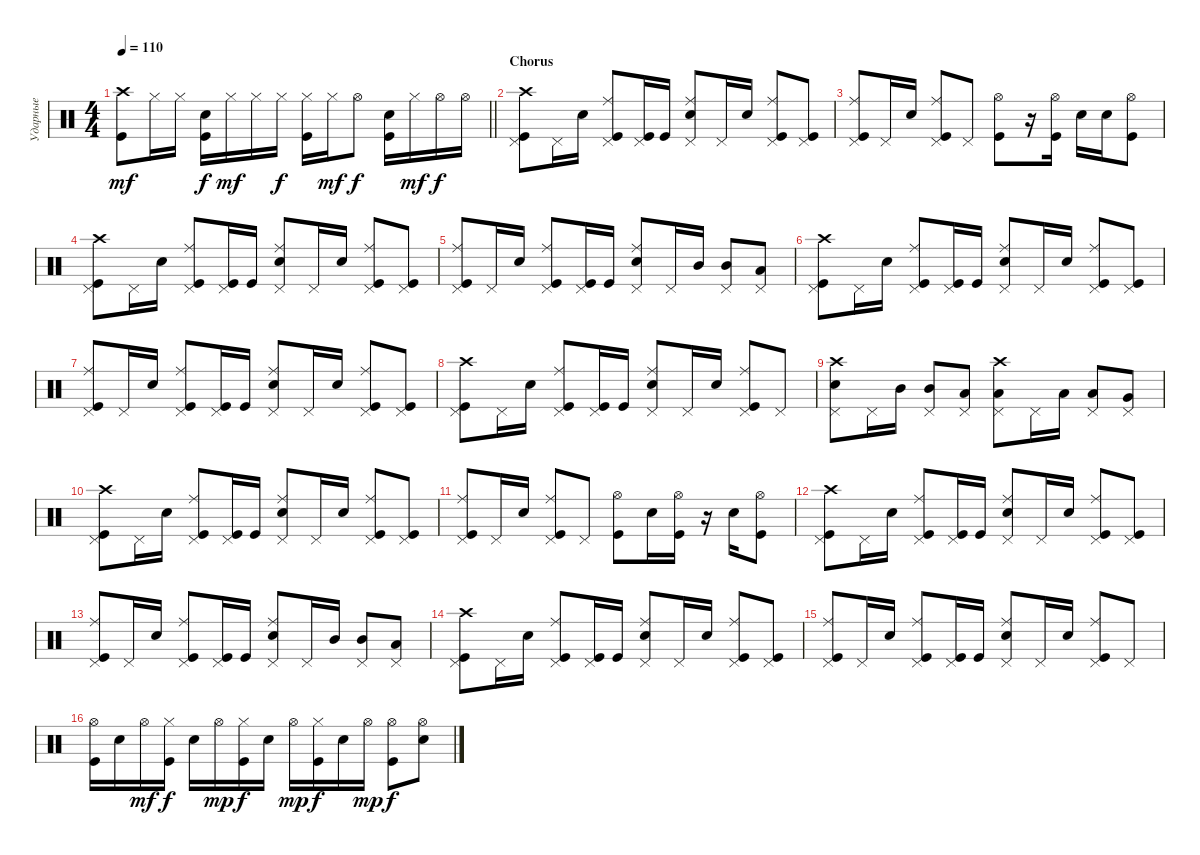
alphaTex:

\track ("Ударные" "Ударные") {instrument percussion}
\staff {score}
\articulation defaults
\ts (4 4)
\tempo 110
\clef neutral
\barLineRight lightlight
\ks c
("Crash high (hit)" "Kick (hit)").8{dy mf} "Hi-Hat (closed)".16 "Hi-Hat (closed)".16 ("Snare (hit) 2" "Kick (hit)").16{dy f} "Hi-Hat (closed)".16{dy mf} "Hi-Hat (closed)".16 "Hi-Hat (closed)".16{dy f} ("Hi-Hat (closed)" "Kick (hit)").16 "Hi-Hat (closed)".16{dy mf} "Hi-Hat (open)".8{dy f} ("Kick (hit)" "Snare (hit) 2").16 "Hi-Hat (closed)".16{dy mf} "Hi-Hat (open)".16{dy f} "Hi-Hat (open)".16 |
\section ("" "Chorus")
("Kick (hit)" "Crash high (hit)" "Pedal Hi-Hat (hit)").8 "Pedal Hi-Hat (hit)".16 "Snare (hit) 2".16 ("Kick (hit)" "Ride (middle)" "Pedal Hi-Hat (hit)").8 ("Pedal Hi-Hat (hit)" "Kick (hit)").16 "Kick (hit)".16 ("Snare (hit) 2" "Ride (middle)" "Pedal Hi-Hat (hit)").8 "Pedal Hi-Hat (hit)".16 "Snare (hit) 2".16 ("Kick (hit)" "Ride (middle)" "Pedal Hi-Hat (hit)").8 ("Kick (hit)" "Pedal Hi-Hat (hit)").8 |
("Kick (hit)" "Ride (middle)" "Pedal Hi-Hat (hit)").8 "Pedal Hi-Hat (hit)".16 "Snare (hit) 2".16 ("Kick (hit)" "Ride (middle)" "Pedal Hi-Hat (hit)").8 "Pedal Hi-Hat (hit)".8 ("Kick (hit)" "Hi-Hat (open)").8 r.16 ("Kick (hit)" "Hi-Hat (open)").16 "Snare (hit) 2".16 "Snare (hit) 2".16 ("Kick (hit)" "Hi-Hat (open)").8 |
("Kick (hit)" "Crash high (hit)" "Pedal Hi-Hat (hit)").8 "Pedal Hi-Hat (hit)".16 "Snare (hit) 2".16 ("Kick (hit)" "Ride (middle)" "Pedal Hi-Hat (hit)").8 ("Pedal Hi-Hat (hit)" "Kick (hit)").16 "Kick (hit)".16 ("Snare (hit) 2" "Ride (middle)" "Pedal Hi-Hat (hit)").8 "Pedal Hi-Hat (hit)".16 "Snare (hit) 2".16 ("Kick (hit)" "Ride (middle)" "Pedal Hi-Hat (hit)").8 ("Kick (hit)" "Pedal Hi-Hat (hit)").8 |
("Kick (hit)" "Ride (middle)" "Pedal Hi-Hat (hit)").8 "Pedal Hi-Hat (hit)".16 "Snare (hit) 2".16 ("Kick (hit)" "Ride (middle)" "Pedal Hi-Hat (hit)").8 ("Pedal Hi-Hat (hit)" "Kick (hit)").16 "Kick (hit)".16 ("Snare (hit) 2" "Pedal Hi-Hat (hit)" "Ride (middle)").8 "Pedal Hi-Hat (hit)".16 "Mid Tom (hit)".16 ("Pedal Hi-Hat (hit)" "Mid Tom (hit)").8 ("Pedal Hi-Hat (hit)" "Low Tom (hit)").8 |
("Kick (hit)" "Crash high (hit)" "Pedal Hi-Hat (hit)").8 "Pedal Hi-Hat (hit)".16 "Snare (hit) 2".16 ("Kick (hit)" "Ride (middle)" "Pedal Hi-Hat (hit)").8 ("Pedal Hi-Hat (hit)" "Kick (hit)").16 "Kick (hit)".16 ("Snare (hit) 2" "Ride (middle)" "Pedal Hi-Hat (hit)").8 "Pedal Hi-Hat (hit)".16 "Snare (hit) 2".16 ("Kick (hit)" "Ride (middle)" "Pedal Hi-Hat (hit)").8 ("Kick (hit)" "Pedal Hi-Hat (hit)").8 |
("Kick (hit)" "Ride (middle)" "Pedal Hi-Hat (hit)").8 "Pedal Hi-Hat (hit)".16 "Snare (hit) 2".16 ("Kick (hit)" "Ride (middle)" "Pedal Hi-Hat (hit)").8 ("Pedal Hi-Hat (hit)" "Kick (hit)").16 "Kick (hit)".16 ("Snare (hit) 2" "Ride (middle)" "Pedal Hi-Hat (hit)").8 "Pedal Hi-Hat (hit)".16 "Snare (hit) 2".16 ("Kick (hit)" "Ride (middle)" "Pedal Hi-Hat (hit)").8 ("Kick (hit)" "Pedal Hi-Hat (hit)").8 |
("Kick (hit)" "Crash high (hit)" "Pedal Hi-Hat (hit)").8 "Pedal Hi-Hat (hit)".16 "Snare (hit) 2".16 ("Kick (hit)" "Ride (middle)" "Pedal Hi-Hat (hit)").8 ("Pedal Hi-Hat (hit)" "Kick (hit)").16 "Kick (hit)".16 ("Snare (hit) 2" "Ride (middle)" "Pedal Hi-Hat (hit)").8 "Pedal Hi-Hat (hit)".16 "Snare (hit) 2".16 ("Kick (hit)" "Ride (middle)" "Pedal Hi-Hat (hit)").8 "Pedal Hi-Hat (hit)".8 |
("Snare (hit) 2" "Crash high (hit)" "Pedal Hi-Hat (hit)").8 "Pedal Hi-Hat (hit)".16 "Mid Tom (hit)".16 ("Mid Tom (hit)" "Pedal Hi-Hat (hit)").8 ("Low Tom (hit)" "Pedal Hi-Hat (hit)").8 ("Low Tom (hit)" "Crash high (hit)" "Pedal Hi-Hat (hit)").8 "Pedal Hi-Hat (hit)".16 "Low Tom (hit)".16 ("Low Tom (hit)" "Pedal Hi-Hat (hit)").8 ("Very Low Tom (hit)" "Pedal Hi-Hat (hit)").8 |
("Kick (hit)" "Crash high (hit)" "Pedal Hi-Hat (hit)").8 "Pedal Hi-Hat (hit)".16 "Snare (hit) 2".16 ("Kick (hit)" "Ride (middle)" "Pedal Hi-Hat (hit)").8 ("Pedal Hi-Hat (hit)" "Kick (hit)").16 "Kick (hit)".16 ("Snare (hit) 2" "Ride (middle)" "Pedal Hi-Hat (hit)").8 "Pedal Hi-Hat (hit)".16 "Snare (hit) 2".16 ("Kick (hit)" "Ride (middle)" "Pedal Hi-Hat (hit)").8 ("Kick (hit)" "Pedal Hi-Hat (hit)").8 |
("Kick (hit)" "Ride (middle)" "Pedal Hi-Hat (hit)").8 "Pedal Hi-Hat (hit)".16 "Snare (hit) 2".16 ("Kick (hit)" "Ride (middle)" "Pedal Hi-Hat (hit)").8 "Pedal Hi-Hat (hit)".8 ("Kick (hit)" "Hi-Hat (open)").8 "Snare (hit) 2".16 ("Kick (hit)" "Hi-Hat (open)").16 r.16 "Snare (hit) 2".16 ("Kick (hit)" "Hi-Hat (open)").8 |
("Kick (hit)" "Crash high (hit)" "Pedal Hi-Hat (hit)").8 "Pedal Hi-Hat (hit)".16 "Snare (hit) 2".16 ("Kick (hit)" "Ride (middle)" "Pedal Hi-Hat (hit)").8 ("Pedal Hi-Hat (hit)" "Kick (hit)").16 "Kick (hit)".16 ("Snare (hit) 2" "Ride (middle)" "Pedal Hi-Hat (hit)").8 "Pedal Hi-Hat (hit)".16 "Snare (hit) 2".16 ("Kick (hit)" "Ride (middle)" "Pedal Hi-Hat (hit)").8 ("Kick (hit)" "Pedal Hi-Hat (hit)").8 |
("Kick (hit)" "Ride (middle)" "Pedal Hi-Hat (hit)").8 "Pedal Hi-Hat (hit)".16 "Snare (hit) 2".16 ("Kick (hit)" "Ride (middle)" "Pedal Hi-Hat (hit)").8 ("Pedal Hi-Hat (hit)" "Kick (hit)").16 "Kick (hit)".16 ("Snare (hit) 2" "Pedal Hi-Hat (hit)" "Ride (middle)").8 "Pedal Hi-Hat (hit)".16 "Mid Tom (hit)".16 ("Pedal Hi-Hat (hit)" "Mid Tom (hit)").8 ("Pedal Hi-Hat (hit)" "Low Tom (hit)").8 |
("Kick (hit)" "Crash high (hit)" "Pedal Hi-Hat (hit)").8 "Pedal Hi-Hat (hit)".16 "Snare (hit) 2".16 ("Kick (hit)" "Ride (middle)" "Pedal Hi-Hat (hit)").8 ("Pedal Hi-Hat (hit)" "Kick (hit)").16 "Kick (hit)".16 ("Snare (hit) 2" "Ride (middle)" "Pedal Hi-Hat (hit)").8 "Pedal Hi-Hat (hit)".16 "Snare (hit) 2".16 ("Kick (hit)" "Ride (middle)" "Pedal Hi-Hat (hit)").8 ("Kick (hit)" "Pedal Hi-Hat (hit)").8 |
("Kick (hit)" "Ride (middle)" "Pedal Hi-Hat (hit)").8 "Pedal Hi-Hat (hit)".16 "Snare (hit) 2".16 ("Kick (hit)" "Ride (middle)" "Pedal Hi-Hat (hit)").8 ("Pedal Hi-Hat (hit)" "Kick (hit)").16 "Kick (hit)".16 ("Snare (hit) 2" "Ride (middle)" "Pedal Hi-Hat (hit)").8 "Pedal Hi-Hat (hit)".16 "Snare (hit) 2".16 ("Kick (hit)" "Ride (middle)" "Pedal Hi-Hat (hit)").8 "Pedal Hi-Hat (hit)".8 |
\ks aminor
("Kick (hit)" "Hi-Hat (open)").16 "Snare (hit) 2".16 "Hi-Hat (open)".16{dy mf} ("Kick (hit)" "Hi-Hat (closed)").16{dy f} "Snare (hit) 2".16 "Hi-Hat (open)".16{dy mp} ("Kick (hit)" "Hi-Hat (closed)").16{dy f} "Snare (hit) 2".16 "Hi-Hat (open)".16{dy mp} ("Kick (hit)" "Hi-Hat (closed)").16{dy f} "Snare (hit) 2".16 "Hi-Hat (open)".16{dy mp} ("Kick (hit)" "Hi-Hat (open)").8{dy f} ("Snare (hit) 2" "Hi-Hat (open)").8
